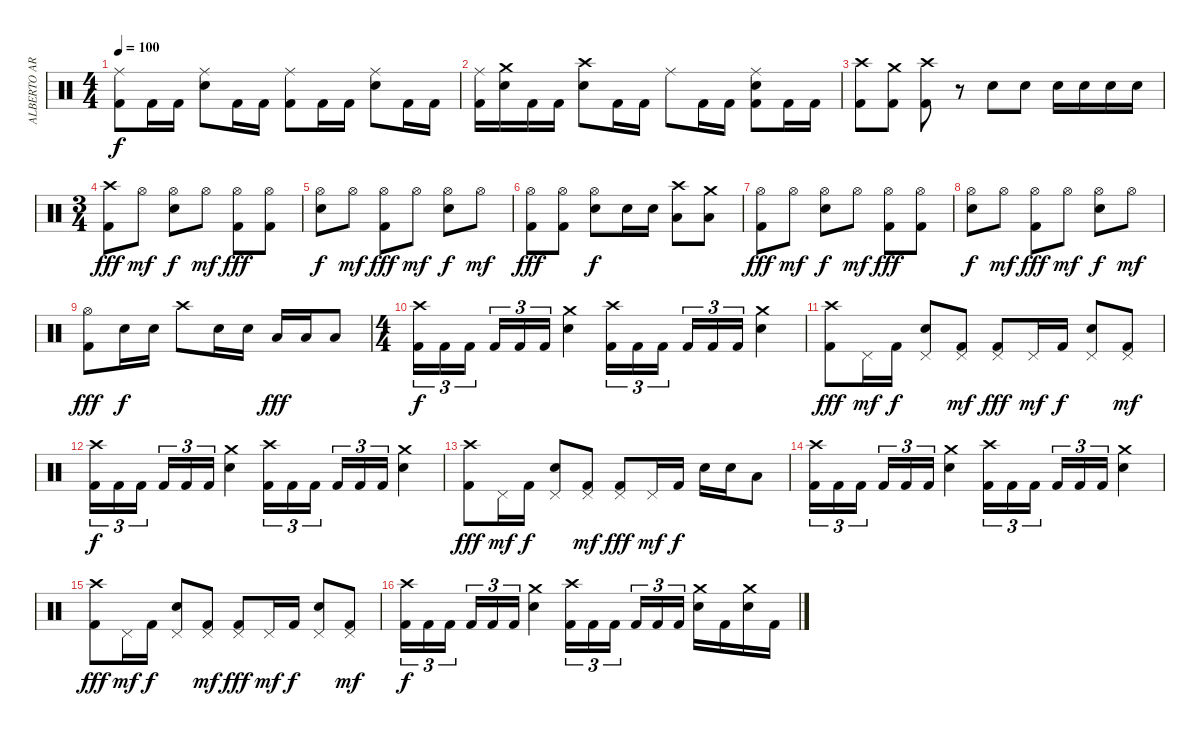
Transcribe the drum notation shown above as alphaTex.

\track ("ALBERTO ARDINES" "ALBERTO AR") {instrument percussion}
\staff {score}
\articulation defaults
\ts (4 4)
\tempo 100
\clef neutral
\ks c
("Ride (middle)" "Kick (hit) 2").8{dy f} "Kick (hit) 2".16 "Kick (hit) 2".16 ("Ride (middle)" "Electric Snare (hit)").8 "Kick (hit) 2".16 "Kick (hit) 2".16 ("Ride (middle)" "Kick (hit) 2").8 "Kick (hit) 2".16 "Kick (hit) 2".16 ("Ride (middle)" "Electric Snare (hit)").8 "Kick (hit) 2".16 "Kick (hit) 2".16 |
("Ride (middle)" "Kick (hit) 2").16 ("Crash medium (hit)" "Electric Snare (hit)").16 "Kick (hit) 2".16 "Kick (hit) 2".16 ("Crash high (hit)" "Electric Snare (hit)").8 "Kick (hit) 2".16 "Kick (hit) 2".16 "Ride (middle)".8 "Kick (hit) 2".16 "Kick (hit) 2".16 ("Ride (middle)" "Electric Snare (hit)" "Kick (hit) 2").8 "Kick (hit) 2".16 "Kick (hit) 2".16 |
("Crash high (hit)" "Kick (hit) 2").8 ("Crash medium (hit)" "Kick (hit) 2").8 ("Crash high (hit)" "Kick (hit) 2").8 r.8 "Electric Snare (hit)".8 "Electric Snare (hit)".8 "Electric Snare (hit)".16 "Electric Snare (hit)".16 "Electric Snare (hit)".16 "Electric Snare (hit)".16 |
\ts (3 4)
("Crash high (hit)" "Kick (hit) 2").8{dy fff} "Hi-Hat (open)".8{dy mf} ("Hi-Hat (open)" "Electric Snare (hit)").8{dy f} "Hi-Hat (open)".8{dy mf} ("Hi-Hat (open)" "Kick (hit) 2").8{dy fff} ("Hi-Hat (open)" "Kick (hit) 2").8 |
("Hi-Hat (open)" "Electric Snare (hit)").8{dy f} "Hi-Hat (open)".8{dy mf} ("Hi-Hat (open)" "Kick (hit) 2").8{dy fff} "Hi-Hat (open)".8{dy mf} ("Hi-Hat (open)" "Electric Snare (hit)").8{dy f} "Hi-Hat (open)".8{dy mf} |
("Hi-Hat (open)" "Kick (hit) 2").8{dy fff} ("Hi-Hat (open)" "Kick (hit) 2").8 ("Hi-Hat (open)" "Electric Snare (hit)").8{dy f} "Electric Snare (hit)".16 "Electric Snare (hit)".16 ("Crash high (hit)" "Low Tom (hit)").8 ("Crash medium (hit)" "Low Tom (hit)").8 |
("Hi-Hat (open)" "Kick (hit) 2").8{dy fff} "Hi-Hat (open)".8{dy mf} ("Hi-Hat (open)" "Electric Snare (hit)").8{dy f} "Hi-Hat (open)".8{dy mf} ("Hi-Hat (open)" "Kick (hit) 2").8{dy fff} ("Hi-Hat (open)" "Kick (hit) 2").8 |
("Hi-Hat (open)" "Electric Snare (hit)").8{dy f} "Hi-Hat (open)".8{dy mf} ("Hi-Hat (open)" "Kick (hit) 2").8{dy fff} "Hi-Hat (open)".8{dy mf} ("Hi-Hat (open)" "Electric Snare (hit)").8{dy f} "Hi-Hat (open)".8{dy mf} |
("Hi-Hat (open)" "Kick (hit) 2").8{dy fff} "Electric Snare (hit)".16{dy f} "Electric Snare (hit)".16 "Crash high (hit)".8 "Electric Snare (hit)".16 "Electric Snare (hit)".16 "Low Tom (hit)".16{dy fff} "Low Tom (hit)".16 "Low Tom (hit)".8 |
\ts (4 4)
("Crash high (hit)" "Kick (hit) 2").16{tu (3 2) dy f} "Kick (hit) 2".16{tu (3 2)} "Kick (hit) 2".16{tu (3 2)} "Kick (hit) 2".16{tu (3 2)} "Kick (hit) 2".16{tu (3 2)} "Kick (hit) 2".16{tu (3 2)} ("Crash medium (hit)" "Electric Snare (hit)").4 ("Crash high (hit)" "Kick (hit) 2").16{tu (3 2)} "Kick (hit) 2".16{tu (3 2)} "Kick (hit) 2".16{tu (3 2)} "Kick (hit) 2".16{tu (3 2)} "Kick (hit) 2".16{tu (3 2)} "Kick (hit) 2".16{tu (3 2)} ("Crash medium (hit)" "Electric Snare (hit)").4 |
("Crash high (hit)" "Kick (hit) 2").8{dy fff} "Pedal Hi-Hat (hit)".16{dy mf} "Kick (hit) 2".16{dy f} ("Pedal Hi-Hat (hit)" "Electric Snare (hit)").8 ("Pedal Hi-Hat (hit)" "Kick (hit) 2").8{dy mf} ("Pedal Hi-Hat (hit)" "Kick (hit) 2").8{dy fff} "Pedal Hi-Hat (hit)".16{dy mf} "Kick (hit) 2".16{dy f} ("Pedal Hi-Hat (hit)" "Electric Snare (hit)").8 ("Pedal Hi-Hat (hit)" "Kick (hit) 2").8{dy mf} |
("Crash high (hit)" "Kick (hit) 2").16{tu (3 2) dy f} "Kick (hit) 2".16{tu (3 2)} "Kick (hit) 2".16{tu (3 2)} "Kick (hit) 2".16{tu (3 2)} "Kick (hit) 2".16{tu (3 2)} "Kick (hit) 2".16{tu (3 2)} ("Crash medium (hit)" "Electric Snare (hit)").4 ("Crash high (hit)" "Kick (hit) 2").16{tu (3 2)} "Kick (hit) 2".16{tu (3 2)} "Kick (hit) 2".16{tu (3 2)} "Kick (hit) 2".16{tu (3 2)} "Kick (hit) 2".16{tu (3 2)} "Kick (hit) 2".16{tu (3 2)} ("Crash medium (hit)" "Electric Snare (hit)").4 |
("Crash high (hit)" "Kick (hit) 2").8{dy fff} "Pedal Hi-Hat (hit)".16{dy mf} "Kick (hit) 2".16{dy f} ("Pedal Hi-Hat (hit)" "Electric Snare (hit)").8 ("Pedal Hi-Hat (hit)" "Kick (hit) 2").8{dy mf} ("Pedal Hi-Hat (hit)" "Kick (hit) 2").8{dy fff} "Pedal Hi-Hat (hit)".16{dy mf} "Kick (hit) 2".16{dy f} "Electric Snare (hit)".16 "Electric Snare (hit)".16 "Low Tom (hit)".8 |
("Crash high (hit)" "Kick (hit) 2").16{tu (3 2)} "Kick (hit) 2".16{tu (3 2)} "Kick (hit) 2".16{tu (3 2)} "Kick (hit) 2".16{tu (3 2)} "Kick (hit) 2".16{tu (3 2)} "Kick (hit) 2".16{tu (3 2)} ("Crash medium (hit)" "Electric Snare (hit)").4 ("Crash high (hit)" "Kick (hit) 2").16{tu (3 2)} "Kick (hit) 2".16{tu (3 2)} "Kick (hit) 2".16{tu (3 2)} "Kick (hit) 2".16{tu (3 2)} "Kick (hit) 2".16{tu (3 2)} "Kick (hit) 2".16{tu (3 2)} ("Crash medium (hit)" "Electric Snare (hit)").4 |
("Crash high (hit)" "Kick (hit) 2").8{dy fff} "Pedal Hi-Hat (hit)".16{dy mf} "Kick (hit) 2".16{dy f} ("Pedal Hi-Hat (hit)" "Electric Snare (hit)").8 ("Pedal Hi-Hat (hit)" "Kick (hit) 2").8{dy mf} ("Pedal Hi-Hat (hit)" "Kick (hit) 2").8{dy fff} "Pedal Hi-Hat (hit)".16{dy mf} "Kick (hit) 2".16{dy f} ("Pedal Hi-Hat (hit)" "Electric Snare (hit)").8 ("Pedal Hi-Hat (hit)" "Kick (hit) 2").8{dy mf} |
("Crash high (hit)" "Kick (hit) 2").16{tu (3 2) dy f} "Kick (hit) 2".16{tu (3 2)} "Kick (hit) 2".16{tu (3 2)} "Kick (hit) 2".16{tu (3 2)} "Kick (hit) 2".16{tu (3 2)} "Kick (hit) 2".16{tu (3 2)} ("Crash medium (hit)" "Electric Snare (hit)").4 ("Crash high (hit)" "Kick (hit) 2").16{tu (3 2)} "Kick (hit) 2".16{tu (3 2)} "Kick (hit) 2".16{tu (3 2)} "Kick (hit) 2".16{tu (3 2)} "Kick (hit) 2".16{tu (3 2)} "Kick (hit) 2".16{tu (3 2)} ("Crash medium (hit)" "Electric Snare (hit)").16 "Kick (hit) 2".16 ("Crash medium (hit)" "Electric Snare (hit)").16 "Kick (hit) 2".16
